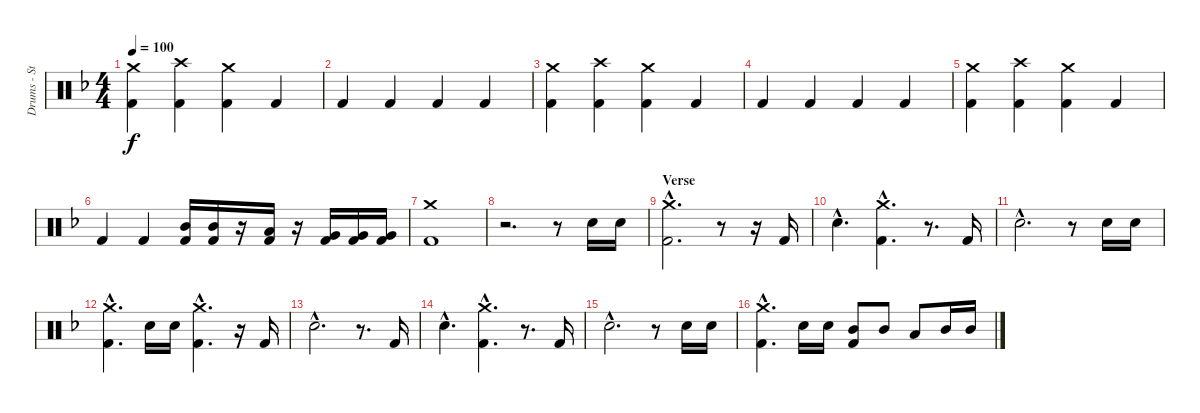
\track ("Drums - Steve Wacholz" "Drums - St") {instrument percussion}
\staff {score}
\articulation defaults
\ts (4 4)
\tempo 100
\clef neutral
\ks f
("Kick (hit) 2" "Crash medium (hit)").4{dy f} ("Kick (hit) 2" "Crash high (hit)").4 ("Kick (hit) 2" "Crash medium (hit)").4 "Kick (hit) 2".4 |
"Kick (hit) 2".4 "Kick (hit) 2".4 "Kick (hit) 2".4 "Kick (hit) 2".4 |
("Kick (hit) 2" "Crash medium (hit)").4 ("Kick (hit) 2" "Crash high (hit)").4 ("Kick (hit) 2" "Crash medium (hit)").4 "Kick (hit) 2".4 |
"Kick (hit) 2".4 "Kick (hit) 2".4 "Kick (hit) 2".4 "Kick (hit) 2".4 |
("Kick (hit) 2" "Crash medium (hit)").4 ("Kick (hit) 2" "Crash high (hit)").4 ("Kick (hit) 2" "Crash medium (hit)").4 "Kick (hit) 2".4 |
"Kick (hit) 2".4 "Kick (hit) 2".4 ("Kick (hit) 2" "Mid Tom (hit)").16 ("Kick (hit) 2" "Mid Tom (hit)").16 r.16 ("Kick (hit) 2" "Low Tom (hit)").16 r.16 ("Kick (hit) 2" "Very Low Tom (hit)").16 ("Kick (hit) 2" "Very Low Tom (hit)").16 ("Kick (hit) 2" "Very Low Tom (hit)").16 |
("Kick (hit) 2" "Crash medium (hit)").1 |
r.2{d} r.8 "Electric Snare (hit)".16 "Electric Snare (hit)".16 |
\section ("" "Verse")
("Kick (hit) 2"{hac} "Crash medium (hit)"{hac}).2{d} r.8 r.16 "Kick (hit) 2".16 |
"Electric Snare (hit)"{hac}.4{d} ("Kick (hit) 2"{hac} "Crash medium (hit)"{hac}).4{d} r.8{d} "Kick (hit) 2".16 |
"Electric Snare (hit)"{hac}.2{d} r.8 "Electric Snare (hit)".16 "Electric Snare (hit)".16 |
("Kick (hit) 2"{hac} "Crash medium (hit)"{hac}).4{d} "Electric Snare (hit)".16 "Electric Snare (hit)".16 ("Kick (hit) 2"{hac} "Crash medium (hit)"{hac}).4{d} r.16 "Kick (hit) 2".16 |
"Electric Snare (hit)"{hac}.2{d} r.8{d} "Kick (hit) 2".16 |
"Electric Snare (hit)"{hac}.4{d} ("Kick (hit) 2"{hac} "Crash medium (hit)"{hac}).4{d} r.8{d} "Kick (hit) 2".16 |
"Electric Snare (hit)"{hac}.2{d} r.8 "Electric Snare (hit)".16 "Electric Snare (hit)".16 |
("Kick (hit) 2"{hac} "Crash medium (hit)"{hac}).4{d} "Electric Snare (hit)".16 "Electric Snare (hit)".16 ("Kick (hit) 2" "Mid Tom (hit)").8 "Mid Tom (hit)".8 "Low Tom (hit)".8 "Mid Tom (hit)".16 "Mid Tom (hit)".16
